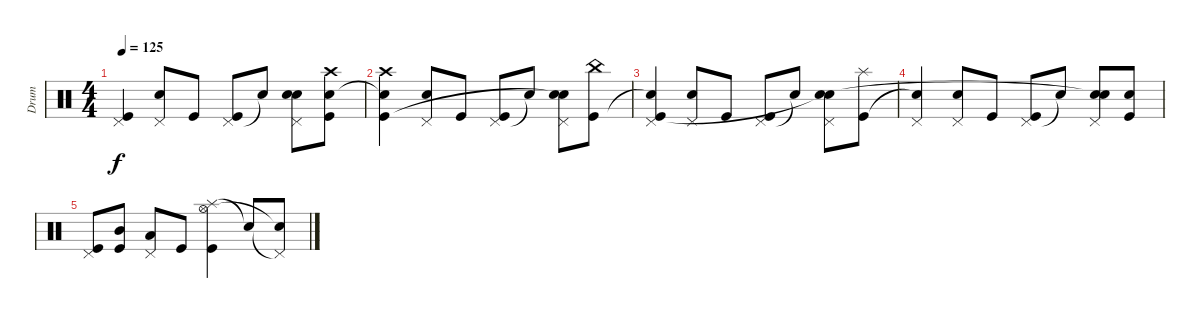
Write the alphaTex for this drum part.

\track ("Drum" "Drum") {instrument percussion}
\staff {score}
\articulation defaults
\ts (4 4)
\tempo 125
\clef neutral
\ks c
("Pedal Hi-Hat (hit)" "Kick (hit)"{x}).4{dy f} ("Pedal Hi-Hat (hit)" "Snare (hit) 2").8 "Kick (hit)".8 ("Pedal Hi-Hat (hit)" "Kick (hit)").8 "Snare (hit)"{t}.8 ("Pedal Hi-Hat (hit)" "Snare (hit) 2" "Snare (hit)"{t}).8 ("Crash high (hit)"{x} "Snare (hit) 2" "Kick (hit)").8 |
("Crash high (hit)" "Snare (hit)"{t} "Kick (hit)").4 ("Pedal Hi-Hat (hit)" "Snare (hit) 2").8 "Kick (hit)".8 ("Pedal Hi-Hat (hit)" "Kick (hit)").8 "Snare (hit)"{t}.8 ("Pedal Hi-Hat (hit)" "Snare (hit) 2" "Snare (hit)"{t}).8 ("China (hit)" "Kick (hit)").8 |
("Pedal Hi-Hat (hit)" "Snare (hit)"{t} "Kick (hit)"{x}).4 ("Pedal Hi-Hat (hit)" "Snare (hit) 2").8 "Kick (hit)".8 ("Pedal Hi-Hat (hit)" "Kick (hit)").8 "Snare (hit)"{t}.8 ("Pedal Hi-Hat (hit)" "Snare (hit) 2" "Snare (hit)"{t}).8 ("Splash (hit)" "Kick (hit)").8 |
("Pedal Hi-Hat (hit)" "Snare (hit)"{t}).4 ("Pedal Hi-Hat (hit)" "Snare (hit) 2").8 "Kick (hit)".8 ("Pedal Hi-Hat (hit)" "Kick (hit)").8 "Snare (hit)"{t}.8 ("Pedal Hi-Hat (hit)" "Snare (hit) 2" "Snare (hit)"{t}).8 ("Snare (hit) 2" "Kick (hit)").8 |
("Pedal Hi-Hat (hit)" "Kick (hit)").8 ("Mid Tom (hit)" "Kick (hit)"{x}).8 ("Pedal Hi-Hat (hit)" "Low Tom (hit)").8 "Kick (hit)"{x}.8 ("Splash (hit)" "Hi-Hat (open)" "Kick (hit)"{x}).4 "Snare (hit)"{t}.8 ("Pedal Hi-Hat (hit)"{t} "Snare (hit)"{t}).8
